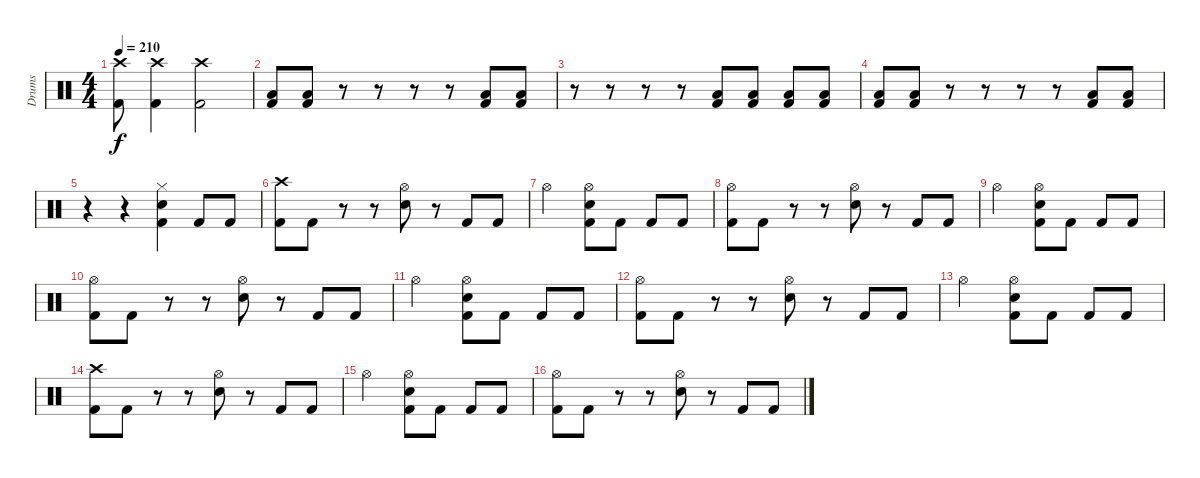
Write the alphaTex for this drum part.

\track ("Drums" "Drums") {instrument percussion}
\staff {score}
\articulation defaults
\ts (4 4)
\tempo 210
\clef neutral
\ks c
("Crash high (hit)" "Kick (hit) 2").8{dy f} ("Crash high (hit)" "Kick (hit) 2").4 ("Crash high (hit)" "Kick (hit) 2").2 |
("Low Floor Tom (hit)" "Kick (hit) 2").8 ("Low Floor Tom (hit)" "Kick (hit) 2").8 r.8 r.8 r.8 r.8 ("Low Floor Tom (hit)" "Kick (hit) 2").8 ("Low Floor Tom (hit)" "Kick (hit) 2").8 |
r.8 r.8 r.8 r.8 ("Low Floor Tom (hit)" "Kick (hit) 2").8 ("Low Floor Tom (hit)" "Kick (hit) 2").8 ("Low Floor Tom (hit)" "Kick (hit) 2").8 ("Low Floor Tom (hit)" "Kick (hit) 2").8 |
("Low Floor Tom (hit)" "Kick (hit) 2").8 ("Low Floor Tom (hit)" "Kick (hit) 2").8 r.8 r.8 r.8 r.8 ("Low Floor Tom (hit)" "Kick (hit) 2").8 ("Low Floor Tom (hit)" "Kick (hit) 2").8 |
r.4 r.4 ("Electric Snare (hit)" "Hi-Hat (closed)" "Kick (hit) 2").4 "Kick (hit) 2".8 "Kick (hit) 2".8 |
("Crash high (hit)" "Kick (hit) 2").8 "Kick (hit) 2".8 r.8 r.8 ("Hi-Hat (open)" "Electric Snare (hit)").8 r.8 "Kick (hit) 2".8 "Kick (hit) 2".8 |
"Hi-Hat (open)".2 ("Hi-Hat (open)" "Electric Snare (hit)" "Kick (hit) 2").8 "Kick (hit) 2".8 "Kick (hit) 2".8 "Kick (hit) 2".8 |
("Hi-Hat (open)" "Kick (hit) 2").8 "Kick (hit) 2".8 r.8 r.8 ("Hi-Hat (open)" "Electric Snare (hit)").8 r.8 "Kick (hit) 2".8 "Kick (hit) 2".8 |
"Hi-Hat (open)".2 ("Hi-Hat (open)" "Electric Snare (hit)" "Kick (hit) 2").8 "Kick (hit) 2".8 "Kick (hit) 2".8 "Kick (hit) 2".8 |
("Hi-Hat (open)" "Kick (hit) 2").8 "Kick (hit) 2".8 r.8 r.8 ("Hi-Hat (open)" "Electric Snare (hit)").8 r.8 "Kick (hit) 2".8 "Kick (hit) 2".8 |
"Hi-Hat (open)".2 ("Hi-Hat (open)" "Electric Snare (hit)" "Kick (hit) 2").8 "Kick (hit) 2".8 "Kick (hit) 2".8 "Kick (hit) 2".8 |
("Hi-Hat (open)" "Kick (hit) 2").8 "Kick (hit) 2".8 r.8 r.8 ("Hi-Hat (open)" "Electric Snare (hit)").8 r.8 "Kick (hit) 2".8 "Kick (hit) 2".8 |
"Hi-Hat (open)".2 ("Hi-Hat (open)" "Electric Snare (hit)" "Kick (hit) 2").8 "Kick (hit) 2".8 "Kick (hit) 2".8 "Kick (hit) 2".8 |
("Crash high (hit)" "Kick (hit) 2").8 "Kick (hit) 2".8 r.8 r.8 ("Hi-Hat (open)" "Electric Snare (hit)").8 r.8 "Kick (hit) 2".8 "Kick (hit) 2".8 |
"Hi-Hat (open)".2 ("Hi-Hat (open)" "Electric Snare (hit)" "Kick (hit) 2").8 "Kick (hit) 2".8 "Kick (hit) 2".8 "Kick (hit) 2".8 |
("Hi-Hat (open)" "Kick (hit) 2").8 "Kick (hit) 2".8 r.8 r.8 ("Hi-Hat (open)" "Electric Snare (hit)").8 r.8 "Kick (hit) 2".8 "Kick (hit) 2".8
